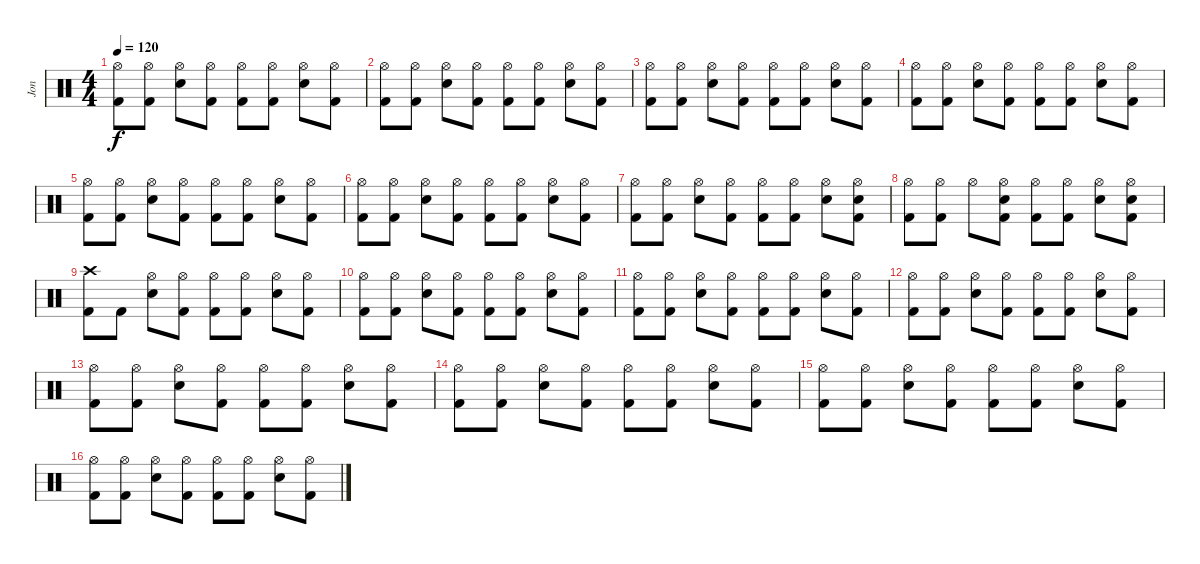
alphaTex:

\track ("Jon" "Jon") {instrument percussion}
\staff {score}
\articulation defaults
\ts (4 4)
\tempo 120
\clef neutral
\ks c
("Hi-Hat (open)" "Kick (hit) 2").8{dy f} ("Hi-Hat (open)" "Kick (hit) 2").8 ("Hi-Hat (open)" "Electric Snare (hit)").8 ("Hi-Hat (open)" "Kick (hit) 2").8 ("Hi-Hat (open)" "Kick (hit) 2").8 ("Hi-Hat (open)" "Kick (hit) 2").8 ("Hi-Hat (open)" "Electric Snare (hit)").8 ("Hi-Hat (open)" "Kick (hit) 2").8 |
("Hi-Hat (open)" "Kick (hit) 2").8 ("Hi-Hat (open)" "Kick (hit) 2").8 ("Hi-Hat (open)" "Electric Snare (hit)").8 ("Hi-Hat (open)" "Kick (hit) 2").8 ("Hi-Hat (open)" "Kick (hit) 2").8 ("Hi-Hat (open)" "Kick (hit) 2").8 ("Hi-Hat (open)" "Electric Snare (hit)").8 ("Hi-Hat (open)" "Kick (hit) 2").8 |
("Hi-Hat (open)" "Kick (hit) 2").8 ("Hi-Hat (open)" "Kick (hit) 2").8 ("Hi-Hat (open)" "Electric Snare (hit)").8 ("Hi-Hat (open)" "Kick (hit) 2").8 ("Hi-Hat (open)" "Kick (hit) 2").8 ("Hi-Hat (open)" "Kick (hit) 2").8 ("Hi-Hat (open)" "Electric Snare (hit)").8 ("Hi-Hat (open)" "Kick (hit) 2").8 |
("Hi-Hat (open)" "Kick (hit) 2").8 ("Hi-Hat (open)" "Kick (hit) 2").8 ("Hi-Hat (open)" "Electric Snare (hit)").8 ("Hi-Hat (open)" "Kick (hit) 2").8 ("Hi-Hat (open)" "Kick (hit) 2").8 ("Hi-Hat (open)" "Kick (hit) 2").8 ("Hi-Hat (open)" "Electric Snare (hit)").8 ("Hi-Hat (open)" "Kick (hit) 2").8 |
("Hi-Hat (open)" "Kick (hit) 2").8 ("Hi-Hat (open)" "Kick (hit) 2").8 ("Hi-Hat (open)" "Electric Snare (hit)").8 ("Hi-Hat (open)" "Kick (hit) 2").8 ("Hi-Hat (open)" "Kick (hit) 2").8 ("Hi-Hat (open)" "Kick (hit) 2").8 ("Hi-Hat (open)" "Electric Snare (hit)").8 ("Hi-Hat (open)" "Kick (hit) 2").8 |
("Hi-Hat (open)" "Kick (hit) 2").8 ("Hi-Hat (open)" "Kick (hit) 2").8 ("Hi-Hat (open)" "Electric Snare (hit)").8 ("Hi-Hat (open)" "Kick (hit) 2").8 ("Hi-Hat (open)" "Kick (hit) 2").8 ("Hi-Hat (open)" "Kick (hit) 2").8 ("Hi-Hat (open)" "Electric Snare (hit)").8 ("Hi-Hat (open)" "Kick (hit) 2").8 |
("Hi-Hat (open)" "Kick (hit) 2").8 ("Hi-Hat (open)" "Kick (hit) 2").8 ("Hi-Hat (open)" "Electric Snare (hit)").8 ("Hi-Hat (open)" "Kick (hit) 2").8 ("Hi-Hat (open)" "Kick (hit) 2").8 ("Hi-Hat (open)" "Kick (hit) 2").8 ("Hi-Hat (open)" "Electric Snare (hit)").8 ("Hi-Hat (open)" "Electric Snare (hit)" "Kick (hit) 2").8 |
("Hi-Hat (open)" "Kick (hit) 2").8 ("Hi-Hat (open)" "Kick (hit) 2").8 "Hi-Hat (open)".8 ("Hi-Hat (open)" "Electric Snare (hit)" "Kick (hit) 2").8 ("Hi-Hat (open)" "Kick (hit) 2").8 ("Hi-Hat (open)" "Kick (hit) 2").8 ("Hi-Hat (open)" "Electric Snare (hit)").8 ("Hi-Hat (open)" "Electric Snare (hit)" "Kick (hit) 2").8 |
("Crash high (hit)" "Kick (hit) 2").8 "Kick (hit) 2".8 ("Hi-Hat (open)" "Electric Snare (hit)").8 ("Hi-Hat (open)" "Kick (hit) 2").8 ("Hi-Hat (open)" "Kick (hit) 2").8 ("Hi-Hat (open)" "Kick (hit) 2").8 ("Hi-Hat (open)" "Electric Snare (hit)").8 ("Hi-Hat (open)" "Kick (hit) 2").8 |
("Hi-Hat (open)" "Kick (hit) 2").8 ("Hi-Hat (open)" "Kick (hit) 2").8 ("Hi-Hat (open)" "Electric Snare (hit)").8 ("Hi-Hat (open)" "Kick (hit) 2").8 ("Hi-Hat (open)" "Kick (hit) 2").8 ("Hi-Hat (open)" "Kick (hit) 2").8 ("Hi-Hat (open)" "Electric Snare (hit)").8 ("Hi-Hat (open)" "Kick (hit) 2").8 |
("Hi-Hat (open)" "Kick (hit) 2").8 ("Hi-Hat (open)" "Kick (hit) 2").8 ("Hi-Hat (open)" "Electric Snare (hit)").8 ("Hi-Hat (open)" "Kick (hit) 2").8 ("Hi-Hat (open)" "Kick (hit) 2").8 ("Hi-Hat (open)" "Kick (hit) 2").8 ("Hi-Hat (open)" "Electric Snare (hit)").8 ("Hi-Hat (open)" "Kick (hit) 2").8 |
("Hi-Hat (open)" "Kick (hit) 2").8 ("Hi-Hat (open)" "Kick (hit) 2").8 ("Hi-Hat (open)" "Electric Snare (hit)").8 ("Hi-Hat (open)" "Kick (hit) 2").8 ("Hi-Hat (open)" "Kick (hit) 2").8 ("Hi-Hat (open)" "Kick (hit) 2").8 ("Hi-Hat (open)" "Electric Snare (hit)").8 ("Hi-Hat (open)" "Kick (hit) 2").8 |
("Hi-Hat (open)" "Kick (hit) 2").8 ("Hi-Hat (open)" "Kick (hit) 2").8 ("Hi-Hat (open)" "Electric Snare (hit)").8 ("Hi-Hat (open)" "Kick (hit) 2").8 ("Hi-Hat (open)" "Kick (hit) 2").8 ("Hi-Hat (open)" "Kick (hit) 2").8 ("Hi-Hat (open)" "Electric Snare (hit)").8 ("Hi-Hat (open)" "Kick (hit) 2").8 |
("Hi-Hat (open)" "Kick (hit) 2").8 ("Hi-Hat (open)" "Kick (hit) 2").8 ("Hi-Hat (open)" "Electric Snare (hit)").8 ("Hi-Hat (open)" "Kick (hit) 2").8 ("Hi-Hat (open)" "Kick (hit) 2").8 ("Hi-Hat (open)" "Kick (hit) 2").8 ("Hi-Hat (open)" "Electric Snare (hit)").8 ("Hi-Hat (open)" "Kick (hit) 2").8 |
("Hi-Hat (open)" "Kick (hit) 2").8 ("Hi-Hat (open)" "Kick (hit) 2").8 ("Hi-Hat (open)" "Electric Snare (hit)").8 ("Hi-Hat (open)" "Kick (hit) 2").8 ("Hi-Hat (open)" "Kick (hit) 2").8 ("Hi-Hat (open)" "Kick (hit) 2").8 ("Hi-Hat (open)" "Electric Snare (hit)").8 ("Hi-Hat (open)" "Kick (hit) 2").8 |
("Hi-Hat (open)" "Kick (hit) 2").8 ("Hi-Hat (open)" "Kick (hit) 2").8 ("Hi-Hat (open)" "Electric Snare (hit)").8 ("Hi-Hat (open)" "Kick (hit) 2").8 ("Hi-Hat (open)" "Kick (hit) 2").8 ("Hi-Hat (open)" "Kick (hit) 2").8 ("Hi-Hat (open)" "Electric Snare (hit)").8 ("Hi-Hat (open)" "Kick (hit) 2").8
